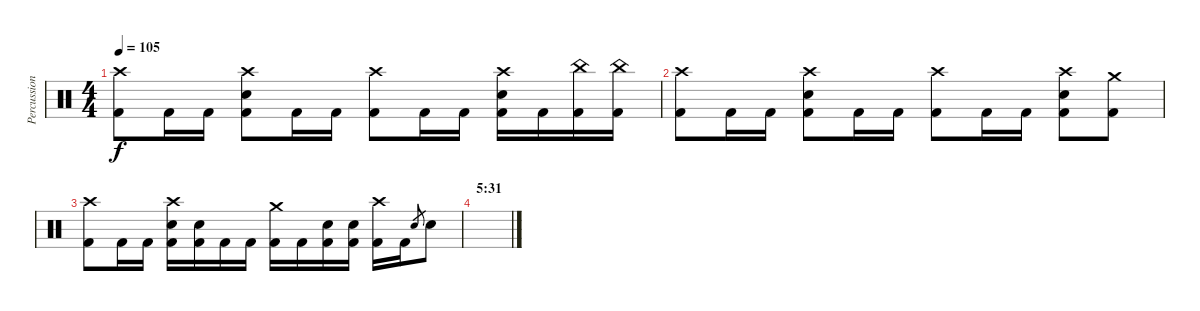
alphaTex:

\track ("Percussion" "Percussion") {instrument percussion}
\staff {score}
\articulation defaults
\ts (4 4)
\tempo 105
\clef neutral
\ks c
("Crash high (hit)" "Kick (hit) 2").8{dy f} "Kick (hit) 2".16 "Kick (hit) 2".16 ("Kick (hit) 2" "Crash high (hit)" "Electric Snare (hit)").8 "Kick (hit) 2".16 "Kick (hit) 2".16 ("Kick (hit) 2" "Crash high (hit)").8 "Kick (hit) 2".16 "Kick (hit) 2".16 ("Kick (hit) 2" "Crash high (hit)" "Electric Snare (hit)").16 "Kick (hit) 2".16 ("Kick (hit) 2" "China (hit)").16 ("Kick (hit) 2" "China (hit)").16 |
("Crash high (hit)" "Kick (hit) 2").8 "Kick (hit) 2".16 "Kick (hit) 2".16 ("Kick (hit) 2" "Crash high (hit)" "Electric Snare (hit)").8 "Kick (hit) 2".16 "Kick (hit) 2".16 ("Kick (hit) 2" "Crash high (hit)").8 "Kick (hit) 2".16 "Kick (hit) 2".16 ("Kick (hit) 2" "Crash high (hit)" "Electric Snare (hit)").8 ("Kick (hit) 2" "Crash medium (hit)").8 |
("Kick (hit) 2" "Crash high (hit)").8 "Kick (hit) 2".16 "Kick (hit) 2".16 ("Kick (hit) 2" "Crash high (hit)" "Electric Snare (hit)").16 ("Kick (hit) 2" "Electric Snare (hit)").16 "Kick (hit) 2".16 "Kick (hit) 2".16 ("Kick (hit) 2" "Crash medium (hit)").16 "Kick (hit) 2".16 ("Kick (hit) 2" "Electric Snare (hit)").16 ("Kick (hit) 2" "Electric Snare (hit)").16 ("Kick (hit) 2" "Crash high (hit)").16 "Kick (hit) 2".16 "Electric Snare (hit)".8{gr} "Electric Snare (hit)".8 |
\section ("" "5:31")
